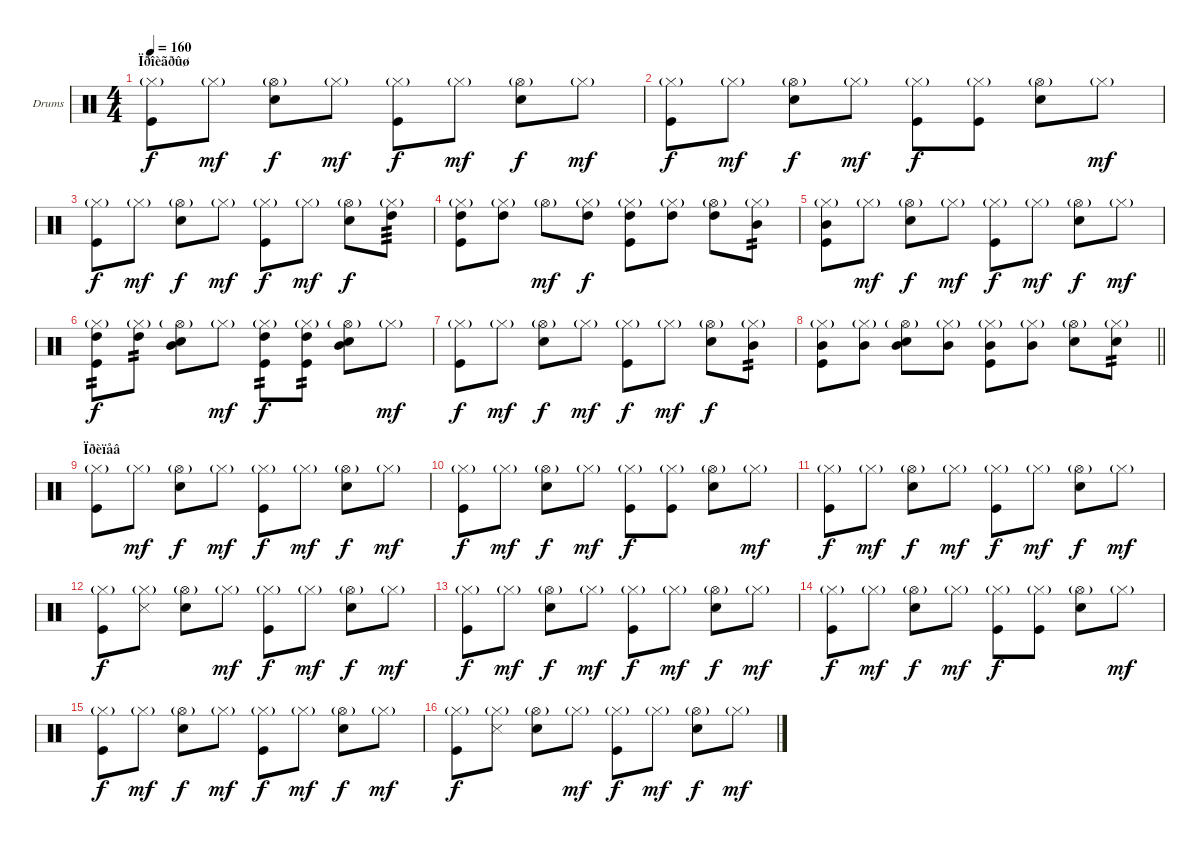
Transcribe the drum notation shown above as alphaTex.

\bracketExtendMode groupsimilarinstruments
\firstSystemTrackNameOrientation horizontal
\otherSystemsTrackNameOrientation horizontal
\track ("Гурьянов" "Drums") {instrument percussion}
\staff {score}
\articulation defaults
\ts (4 4)
\section ("" "Ïðîèãðûø")
\tempo 160
\clef neutral
\scale
0.333333
\ks c
("Hi-Hat (closed)"{g} "Kick (hit)").8{dy f} "Hi-Hat (closed)"{g}.8{dy mf} ("Hi-Hat (open)"{g} "Snare (hit) 2").8{dy f} "Hi-Hat (closed)"{g}.8{dy mf} ("Hi-Hat (closed)"{g} "Kick (hit)").8{dy f} "Hi-Hat (closed)"{g}.8{dy mf} ("Hi-Hat (open)"{g} "Snare (hit) 2").8{dy f} "Hi-Hat (closed)"{g}.8{dy mf} |
\scale
0.333333 ("Hi-Hat (closed)"{g} "Kick (hit)").8{dy f} "Hi-Hat (closed)"{g}.8{dy mf} ("Hi-Hat (open)"{g} "Snare (hit) 2").8{dy f} "Hi-Hat (closed)"{g}.8{dy mf} ("Hi-Hat (closed)"{g} "Kick (hit)").8{dy f} ("Hi-Hat (closed)"{g} "Kick (hit)").8 ("Hi-Hat (open)"{g} "Snare (hit) 2").8 "Hi-Hat (closed)"{g}.8{dy mf} |
\scale
0.333333 ("Hi-Hat (closed)"{g} "Kick (hit)").8{dy f} "Hi-Hat (closed)"{g}.8{dy mf} ("Hi-Hat (open)"{g} "Snare (hit) 2").8{dy f} "Hi-Hat (closed)"{g}.8{dy mf} ("Hi-Hat (closed)"{g} "Kick (hit)").8{dy f} "Hi-Hat (closed)"{g}.8{dy mf} ("Hi-Hat (open)"{g} "Snare (hit) 2").8{dy f} ("Hi-Hat (closed)"{g} "High Tom (hit)").8{tp 3} |
\scale
0.333333 ("Hi-Hat (closed)"{g} "High Tom (hit)" "Kick (hit)").8 ("Hi-Hat (closed)"{g} "High Tom (hit)").8 "Hi-Hat (open)"{g}.8{dy mf} ("Hi-Hat (closed)"{g} "High Tom (hit)").8{dy f} ("Hi-Hat (closed)"{g} "High Tom (hit)" "Kick (hit)").8 ("Hi-Hat (closed)"{g} "High Tom (hit)").8 ("Hi-Hat (open)"{g} "High Tom (hit)").8 ("Hi-Hat (closed)"{g} "Mid Tom (hit)").8{tp 2} |
\scale
0.333333 ("Hi-Hat (closed)"{g} "Mid Tom (hit)" "Kick (hit)").8 "Hi-Hat (closed)"{g}.8{dy mf} ("Hi-Hat (open)"{g} "Snare (hit) 2").8{dy f} "Hi-Hat (closed)"{g}.8{dy mf} ("Hi-Hat (closed)"{g} "Kick (hit)").8{dy f} "Hi-Hat (closed)"{g}.8{dy mf} ("Hi-Hat (open)"{g} "Snare (hit) 2").8{dy f} "Hi-Hat (closed)"{g}.8{dy mf} |
\scale
0.333333 ("Hi-Hat (closed)"{g} "High Tom (hit)" "Kick (hit)").8{tp 2 dy f} ("Hi-Hat (closed)"{g} "High Tom (hit)").8{tp 2} ("Hi-Hat (open)"{g} "Mid Tom (hit)" "Snare (hit) 2").8 "Hi-Hat (closed)"{g}.8{dy mf} ("Hi-Hat (closed)"{g} "High Tom (hit)" "Kick (hit)").8{tp 2 dy f} ("Hi-Hat (closed)"{g} "High Tom (hit)" "Kick (hit)").8{tp 2} ("Hi-Hat (open)"{g} "Mid Tom (hit)" "Snare (hit) 2").8 "Hi-Hat (closed)"{g}.8{dy mf} |
\scale
0.333333 ("Hi-Hat (closed)"{g} "Kick (hit)").8{dy f} "Hi-Hat (closed)"{g}.8{dy mf} ("Hi-Hat (open)"{g} "Snare (hit) 2").8{dy f} "Hi-Hat (closed)"{g}.8{dy mf} ("Hi-Hat (closed)"{g} "Kick (hit)").8{dy f} "Hi-Hat (closed)"{g}.8{dy mf} ("Hi-Hat (open)"{g} "Snare (hit) 2").8{dy f} ("Hi-Hat (closed)"{g} "Mid Tom (hit)").8{tp 2} |
\scale
0.333333
\barLineRight lightlight
("Hi-Hat (closed)"{g} "Mid Tom (hit)" "Kick (hit)").8 ("Hi-Hat (closed)"{g} "Mid Tom (hit)").8 ("Hi-Hat (open)"{g} "Mid Tom (hit)" "Snare (hit) 2").8 ("Hi-Hat (closed)"{g} "Mid Tom (hit)").8 ("Hi-Hat (closed)"{g} "Mid Tom (hit)" "Kick (hit)").8 ("Hi-Hat (closed)"{g} "Mid Tom (hit)").8 ("Hi-Hat (open)"{g} "Snare (hit) 2").8 ("Hi-Hat (closed)"{g} "Snare (hit) 2").8{tp 2} |
\section ("" "Ïðèïåâ")
\scale
0.333333 ("Hi-Hat (closed)"{g} "Kick (hit)").8 "Hi-Hat (closed)"{g}.8{dy mf} ("Hi-Hat (open)"{g} "Snare (hit) 2").8{dy f} "Hi-Hat (closed)"{g}.8{dy mf} ("Hi-Hat (closed)"{g} "Kick (hit)").8{dy f} "Hi-Hat (closed)"{g}.8{dy mf} ("Hi-Hat (open)"{g} "Snare (hit) 2").8{dy f} "Hi-Hat (closed)"{g}.8{dy mf} |
\scale
0.333333 ("Hi-Hat (closed)"{g} "Kick (hit)").8{dy f} "Hi-Hat (closed)"{g}.8{dy mf} ("Hi-Hat (open)"{g} "Snare (hit) 2").8{dy f} "Hi-Hat (closed)"{g}.8{dy mf} ("Hi-Hat (closed)"{g} "Kick (hit)").8{dy f} ("Hi-Hat (closed)"{g} "Kick (hit)").8 ("Hi-Hat (open)"{g} "Snare (hit) 2").8 "Hi-Hat (closed)"{g}.8{dy mf} |
\scale
0.333333 ("Hi-Hat (closed)"{g} "Kick (hit)").8{dy f} "Hi-Hat (closed)"{g}.8{dy mf} ("Hi-Hat (open)"{g} "Snare (hit) 2").8{dy f} "Hi-Hat (closed)"{g}.8{dy mf} ("Hi-Hat (closed)"{g} "Kick (hit)").8{dy f} "Hi-Hat (closed)"{g}.8{dy mf} ("Hi-Hat (open)"{g} "Snare (hit) 2").8{dy f} "Hi-Hat (closed)"{g}.8{dy mf} |
\scale
0.333333 ("Hi-Hat (closed)"{g} "Kick (hit)").8{dy f} ("Hi-Hat (closed)"{g} "Snare (side stick) 3").8 ("Hi-Hat (open)"{g} "Snare (hit) 2").8 "Hi-Hat (closed)"{g}.8{dy mf} ("Hi-Hat (closed)"{g} "Kick (hit)").8{dy f} "Hi-Hat (closed)"{g}.8{dy mf} ("Hi-Hat (open)"{g} "Snare (hit) 2").8{dy f} "Hi-Hat (closed)"{g}.8{dy mf} |
\scale
0.333333 ("Hi-Hat (closed)"{g} "Kick (hit)").8{dy f} "Hi-Hat (closed)"{g}.8{dy mf} ("Hi-Hat (open)"{g} "Snare (hit) 2").8{dy f} "Hi-Hat (closed)"{g}.8{dy mf} ("Hi-Hat (closed)"{g} "Kick (hit)").8{dy f} "Hi-Hat (closed)"{g}.8{dy mf} ("Hi-Hat (open)"{g} "Snare (hit) 2").8{dy f} "Hi-Hat (closed)"{g}.8{dy mf} |
\scale
0.333333 ("Hi-Hat (closed)"{g} "Kick (hit)").8{dy f} "Hi-Hat (closed)"{g}.8{dy mf} ("Hi-Hat (open)"{g} "Snare (hit) 2").8{dy f} "Hi-Hat (closed)"{g}.8{dy mf} ("Hi-Hat (closed)"{g} "Kick (hit)").8{dy f} ("Hi-Hat (closed)"{g} "Kick (hit)").8 ("Hi-Hat (open)"{g} "Snare (hit) 2").8 "Hi-Hat (closed)"{g}.8{dy mf} |
\scale
0.333333 ("Hi-Hat (closed)"{g} "Kick (hit)").8{dy f} "Hi-Hat (closed)"{g}.8{dy mf} ("Hi-Hat (open)"{g} "Snare (hit) 2").8{dy f} "Hi-Hat (closed)"{g}.8{dy mf} ("Hi-Hat (closed)"{g} "Kick (hit)").8{dy f} "Hi-Hat (closed)"{g}.8{dy mf} ("Hi-Hat (open)"{g} "Snare (hit) 2").8{dy f} "Hi-Hat (closed)"{g}.8{dy mf} |
\scale
0.333333 ("Hi-Hat (closed)"{g} "Kick (hit)").8{dy f} ("Hi-Hat (closed)"{g} "Snare (side stick) 3").8 ("Hi-Hat (open)"{g} "Snare (hit) 2").8 "Hi-Hat (closed)"{g}.8{dy mf} ("Hi-Hat (closed)"{g} "Kick (hit)").8{dy f} "Hi-Hat (closed)"{g}.8{dy mf} ("Hi-Hat (open)"{g} "Snare (hit) 2").8{dy f} "Hi-Hat (closed)"{g}.8{dy mf}
